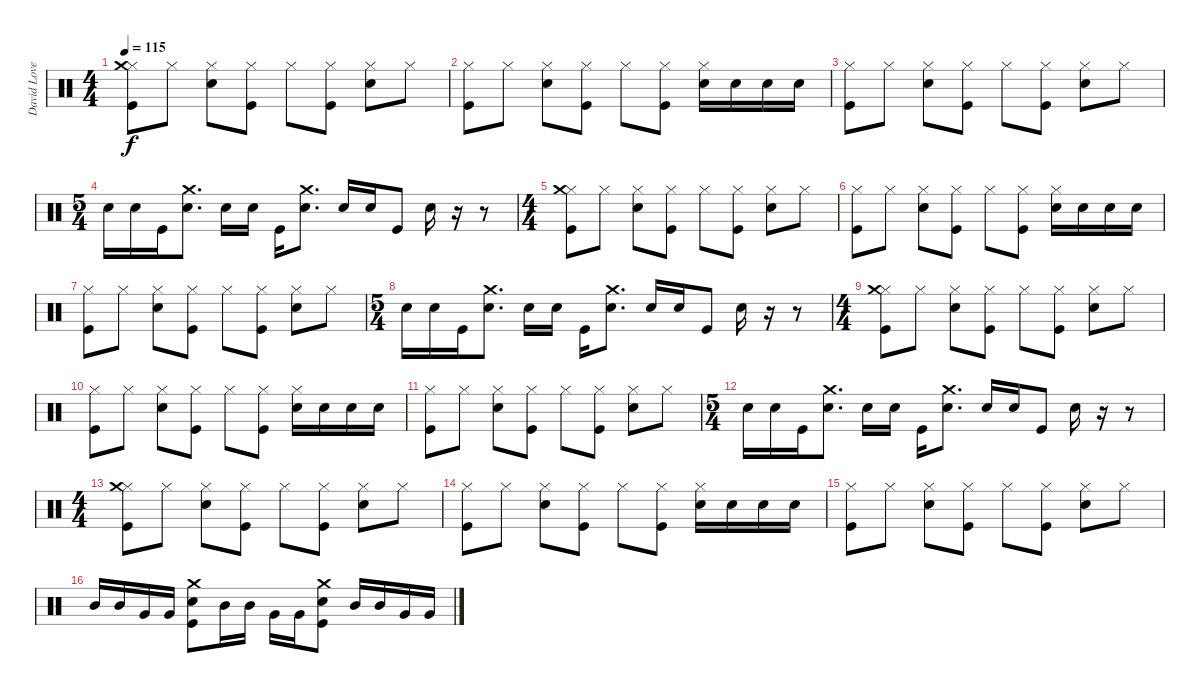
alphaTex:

\track ("David Lovering" "David Love") {instrument percussion}
\staff {score}
\articulation defaults
\ts (4 4)
\tempo 115
\clef neutral
\ks c
("Hi-Hat (closed)" "Crash medium (hit)" "Kick (hit)").8{dy f} "Hi-Hat (closed)".8 ("Hi-Hat (closed)" "Snare (hit) 2").8 ("Hi-Hat (closed)" "Kick (hit)").8 "Hi-Hat (closed)".8 ("Hi-Hat (closed)" "Kick (hit)").8 ("Hi-Hat (closed)" "Snare (hit) 2").8 "Hi-Hat (closed)".8 |
("Hi-Hat (closed)" "Kick (hit)").8 "Hi-Hat (closed)".8 ("Hi-Hat (closed)" "Snare (hit) 2").8 ("Hi-Hat (closed)" "Kick (hit)").8 "Hi-Hat (closed)".8 ("Hi-Hat (closed)" "Kick (hit)").8 ("Hi-Hat (closed)" "Snare (hit) 2").16 "Snare (hit) 2".16 "Snare (hit) 2".16 "Snare (hit) 2".16 |
("Hi-Hat (closed)" "Kick (hit)").8 "Hi-Hat (closed)".8 ("Hi-Hat (closed)" "Snare (hit) 2").8 ("Hi-Hat (closed)" "Kick (hit)").8 "Hi-Hat (closed)".8 ("Hi-Hat (closed)" "Kick (hit)").8 ("Hi-Hat (closed)" "Snare (hit) 2").8 "Hi-Hat (closed)".8 |
\ts (5 4)
"Snare (hit) 2".16 "Snare (hit) 2".16 "Kick (hit)".16 ("Crash medium (hit)" "Snare (hit) 2").8{d} "Snare (hit) 2".16 "Snare (hit) 2".16 "Kick (hit)".16 ("Crash medium (hit)" "Snare (hit) 2").8{d} "Snare (hit) 2".16 "Snare (hit) 2".16 "Kick (hit)".8 "Snare (hit) 2".16 r.16 r.8 |
\ts (4 4)
("Hi-Hat (closed)" "Crash medium (hit)" "Kick (hit)").8 "Hi-Hat (closed)".8 ("Hi-Hat (closed)" "Snare (hit) 2").8 ("Hi-Hat (closed)" "Kick (hit)").8 "Hi-Hat (closed)".8 ("Hi-Hat (closed)" "Kick (hit)").8 ("Hi-Hat (closed)" "Snare (hit) 2").8 "Hi-Hat (closed)".8 |
("Hi-Hat (closed)" "Kick (hit)").8 "Hi-Hat (closed)".8 ("Hi-Hat (closed)" "Snare (hit) 2").8 ("Hi-Hat (closed)" "Kick (hit)").8 "Hi-Hat (closed)".8 ("Hi-Hat (closed)" "Kick (hit)").8 ("Hi-Hat (closed)" "Snare (hit) 2").16 "Snare (hit) 2".16 "Snare (hit) 2".16 "Snare (hit) 2".16 |
("Hi-Hat (closed)" "Kick (hit)").8 "Hi-Hat (closed)".8 ("Hi-Hat (closed)" "Snare (hit) 2").8 ("Hi-Hat (closed)" "Kick (hit)").8 "Hi-Hat (closed)".8 ("Hi-Hat (closed)" "Kick (hit)").8 ("Hi-Hat (closed)" "Snare (hit) 2").8 "Hi-Hat (closed)".8 |
\ts (5 4)
"Snare (hit) 2".16 "Snare (hit) 2".16 "Kick (hit)".16 ("Crash medium (hit)" "Snare (hit) 2").8{d} "Snare (hit) 2".16 "Snare (hit) 2".16 "Kick (hit)".16 ("Crash medium (hit)" "Snare (hit) 2").8{d} "Snare (hit) 2".16 "Snare (hit) 2".16 "Kick (hit)".8 "Snare (hit) 2".16 r.16 r.8 |
\ts (4 4)
("Hi-Hat (closed)" "Crash medium (hit)" "Kick (hit)").8 "Hi-Hat (closed)".8 ("Hi-Hat (closed)" "Snare (hit) 2").8 ("Hi-Hat (closed)" "Kick (hit)").8 "Hi-Hat (closed)".8 ("Hi-Hat (closed)" "Kick (hit)").8 ("Hi-Hat (closed)" "Snare (hit) 2").8 "Hi-Hat (closed)".8 |
("Hi-Hat (closed)" "Kick (hit)").8 "Hi-Hat (closed)".8 ("Hi-Hat (closed)" "Snare (hit) 2").8 ("Hi-Hat (closed)" "Kick (hit)").8 "Hi-Hat (closed)".8 ("Hi-Hat (closed)" "Kick (hit)").8 ("Hi-Hat (closed)" "Snare (hit) 2").16 "Snare (hit) 2".16 "Snare (hit) 2".16 "Snare (hit) 2".16 |
("Hi-Hat (closed)" "Kick (hit)").8 "Hi-Hat (closed)".8 ("Hi-Hat (closed)" "Snare (hit) 2").8 ("Hi-Hat (closed)" "Kick (hit)").8 "Hi-Hat (closed)".8 ("Hi-Hat (closed)" "Kick (hit)").8 ("Hi-Hat (closed)" "Snare (hit) 2").8 "Hi-Hat (closed)".8 |
\ts (5 4)
"Snare (hit) 2".16 "Snare (hit) 2".16 "Kick (hit)".16 ("Crash medium (hit)" "Snare (hit) 2").8{d} "Snare (hit) 2".16 "Snare (hit) 2".16 "Kick (hit)".16 ("Crash medium (hit)" "Snare (hit) 2").8{d} "Snare (hit) 2".16 "Snare (hit) 2".16 "Kick (hit)".8 "Snare (hit) 2".16 r.16 r.8 |
\ts (4 4)
("Hi-Hat (closed)" "Crash medium (hit)" "Kick (hit)").8 "Hi-Hat (closed)".8 ("Hi-Hat (closed)" "Snare (hit) 2").8 ("Hi-Hat (closed)" "Kick (hit)").8 "Hi-Hat (closed)".8 ("Hi-Hat (closed)" "Kick (hit)").8 ("Hi-Hat (closed)" "Snare (hit) 2").8 "Hi-Hat (closed)".8 |
("Hi-Hat (closed)" "Kick (hit)").8 "Hi-Hat (closed)".8 ("Hi-Hat (closed)" "Snare (hit) 2").8 ("Hi-Hat (closed)" "Kick (hit)").8 "Hi-Hat (closed)".8 ("Hi-Hat (closed)" "Kick (hit)").8 ("Hi-Hat (closed)" "Snare (hit) 2").16 "Snare (hit) 2".16 "Snare (hit) 2".16 "Snare (hit) 2".16 |
("Hi-Hat (closed)" "Kick (hit)").8 "Hi-Hat (closed)".8 ("Hi-Hat (closed)" "Snare (hit) 2").8 ("Hi-Hat (closed)" "Kick (hit)").8 "Hi-Hat (closed)".8 ("Hi-Hat (closed)" "Kick (hit)").8 ("Hi-Hat (closed)" "Snare (hit) 2").8 "Hi-Hat (closed)".8 |
"Mid Tom (hit)".16 "Mid Tom (hit)".16 "Very Low Tom (hit)".16 "Very Low Tom (hit)".16 ("Crash medium (hit)" "Snare (hit) 2" "Kick (hit)").8 "Mid Tom (hit)".16 "Mid Tom (hit)".16 "Very Low Tom (hit)".16 "Very Low Tom (hit)".16 ("Crash medium (hit)" "Snare (hit) 2" "Kick (hit)").8 "Mid Tom (hit)".16 "Mid Tom (hit)".16 "Very Low Tom (hit)".16 "Very Low Tom (hit)".16
